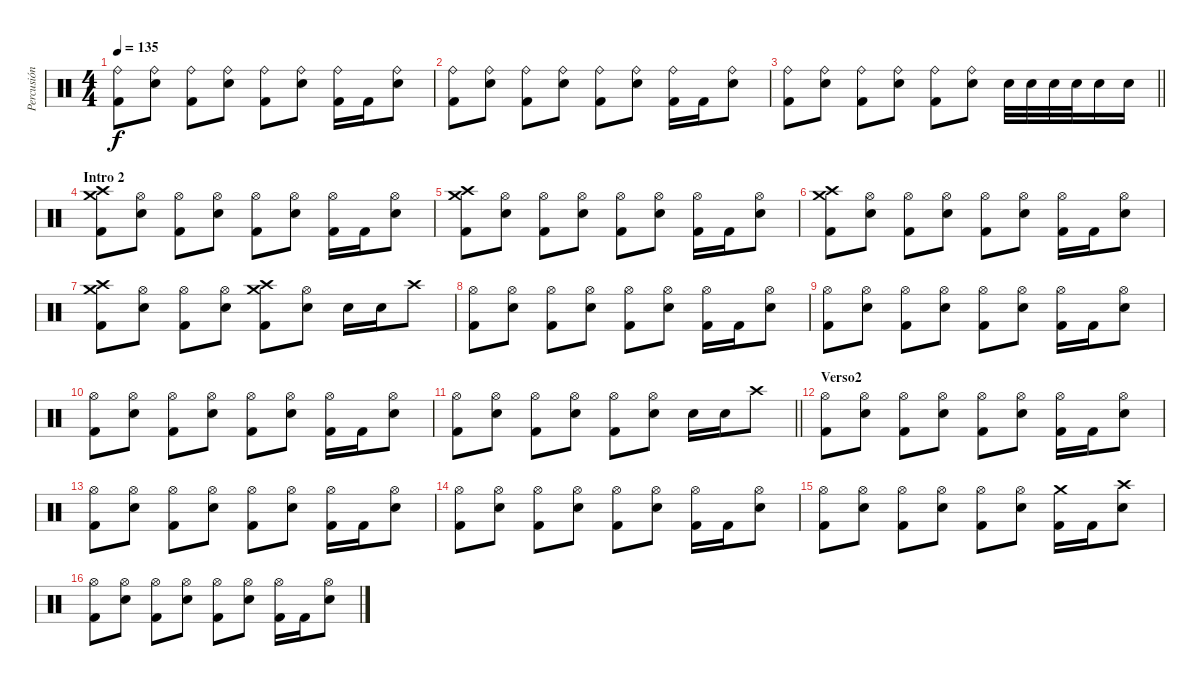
\track ("Percusión" "Percusión") {instrument percussion}
\staff {score}
\articulation defaults
\ts (4 4)
\tempo 135
\clef neutral
\ks c
("Ride (bell)" "Kick (hit) 2").8{dy f} ("Ride (bell)" "Electric Snare (hit)").8 ("Ride (bell)" "Kick (hit) 2").8 ("Ride (bell)" "Electric Snare (hit)").8 ("Ride (bell)" "Kick (hit) 2").8 ("Ride (bell)" "Electric Snare (hit)").8 ("Ride (bell)" "Kick (hit) 2").16 "Kick (hit) 2".16 ("Ride (bell)" "Electric Snare (hit)").8 |
("Ride (bell)" "Kick (hit) 2").8 ("Ride (bell)" "Electric Snare (hit)").8 ("Ride (bell)" "Kick (hit) 2").8 ("Ride (bell)" "Electric Snare (hit)").8 ("Ride (bell)" "Kick (hit) 2").8 ("Ride (bell)" "Electric Snare (hit)").8 ("Ride (bell)" "Kick (hit) 2").16 "Kick (hit) 2".16 ("Ride (bell)" "Electric Snare (hit)").8 |
\barLineRight lightlight
("Ride (bell)" "Kick (hit) 2").8 ("Ride (bell)" "Electric Snare (hit)").8 ("Ride (bell)" "Kick (hit) 2").8 ("Ride (bell)" "Electric Snare (hit)").8 ("Ride (bell)" "Kick (hit) 2").8 ("Ride (bell)" "Electric Snare (hit)").8 "Electric Snare (hit)".32 "Electric Snare (hit)".32 "Electric Snare (hit)".32 "Electric Snare (hit)".32 "Electric Snare (hit)".16 "Electric Snare (hit)".16 |
\section ("" "Intro 2")
("Crash high (hit)" "Crash medium (hit)" "Kick (hit) 2").8 ("Hi-Hat (open)" "Electric Snare (hit)").8 ("Hi-Hat (open)" "Kick (hit) 2").8 ("Hi-Hat (open)" "Electric Snare (hit)").8 ("Hi-Hat (open)" "Kick (hit) 2").8 ("Hi-Hat (open)" "Electric Snare (hit)").8 ("Hi-Hat (open)" "Kick (hit) 2").16 "Kick (hit) 2".16 ("Hi-Hat (open)" "Electric Snare (hit)").8 |
("Crash high (hit)" "Crash medium (hit)" "Kick (hit) 2").8 ("Hi-Hat (open)" "Electric Snare (hit)").8 ("Hi-Hat (open)" "Kick (hit) 2").8 ("Hi-Hat (open)" "Electric Snare (hit)").8 ("Hi-Hat (open)" "Kick (hit) 2").8 ("Hi-Hat (open)" "Electric Snare (hit)").8 ("Hi-Hat (open)" "Kick (hit) 2").16 "Kick (hit) 2".16 ("Hi-Hat (open)" "Electric Snare (hit)").8 |
("Crash high (hit)" "Crash medium (hit)" "Kick (hit) 2").8 ("Hi-Hat (open)" "Snare (hit) 2").8 ("Hi-Hat (open)" "Kick (hit) 2").8 ("Hi-Hat (open)" "Electric Snare (hit)").8 ("Hi-Hat (open)" "Kick (hit) 2").8 ("Hi-Hat (open)" "Electric Snare (hit)").8 ("Hi-Hat (open)" "Kick (hit) 2").16 "Kick (hit) 2".16 ("Hi-Hat (open)" "Electric Snare (hit)").8 |
("Crash high (hit)" "Crash medium (hit)" "Kick (hit) 2").8 ("Hi-Hat (open)" "Electric Snare (hit)").8 ("Hi-Hat (open)" "Kick (hit) 2").8 ("Hi-Hat (open)" "Electric Snare (hit)").8 ("Crash high (hit)" "Crash medium (hit)" "Kick (hit) 2").8 ("Hi-Hat (open)" "Electric Snare (hit)").8 "Electric Snare (hit)".16 "Electric Snare (hit)".16 "Crash high (hit)".8 |
("Hi-Hat (open)" "Kick (hit) 2").8 ("Hi-Hat (open)" "Electric Snare (hit)").8 ("Hi-Hat (open)" "Kick (hit) 2").8 ("Hi-Hat (open)" "Electric Snare (hit)").8 ("Hi-Hat (open)" "Kick (hit) 2").8 ("Hi-Hat (open)" "Electric Snare (hit)").8 ("Hi-Hat (open)" "Kick (hit) 2").16 "Kick (hit) 2".16 ("Hi-Hat (open)" "Electric Snare (hit)").8 |
("Hi-Hat (open)" "Kick (hit) 2").8 ("Hi-Hat (open)" "Electric Snare (hit)").8 ("Hi-Hat (open)" "Kick (hit) 2").8 ("Hi-Hat (open)" "Electric Snare (hit)").8 ("Hi-Hat (open)" "Kick (hit) 2").8 ("Hi-Hat (open)" "Electric Snare (hit)").8 ("Hi-Hat (open)" "Kick (hit) 2").16 "Kick (hit) 2".16 ("Hi-Hat (open)" "Electric Snare (hit)").8 |
("Hi-Hat (open)" "Kick (hit) 2").8 ("Hi-Hat (open)" "Snare (hit) 2").8 ("Hi-Hat (open)" "Kick (hit) 2").8 ("Hi-Hat (open)" "Electric Snare (hit)").8 ("Hi-Hat (open)" "Kick (hit) 2").8 ("Hi-Hat (open)" "Electric Snare (hit)").8 ("Hi-Hat (open)" "Kick (hit) 2").16 "Kick (hit) 2".16 ("Hi-Hat (open)" "Electric Snare (hit)").8 |
\barLineRight lightlight
("Hi-Hat (open)" "Kick (hit) 2").8 ("Hi-Hat (open)" "Electric Snare (hit)").8 ("Hi-Hat (open)" "Kick (hit) 2").8 ("Hi-Hat (open)" "Electric Snare (hit)").8 ("Hi-Hat (open)" "Kick (hit) 2").8 ("Hi-Hat (open)" "Electric Snare (hit)").8 "Electric Snare (hit)".16 "Electric Snare (hit)".16 "Crash high (hit)".8 |
\section ("" "Verso2")
("Hi-Hat (open)" "Kick (hit) 2").8 ("Hi-Hat (open)" "Electric Snare (hit)").8 ("Hi-Hat (open)" "Kick (hit) 2").8 ("Hi-Hat (open)" "Electric Snare (hit)").8 ("Hi-Hat (open)" "Kick (hit) 2").8 ("Hi-Hat (open)" "Electric Snare (hit)").8 ("Hi-Hat (open)" "Kick (hit) 2").16 "Kick (hit) 2".16 ("Hi-Hat (open)" "Electric Snare (hit)").8 |
("Hi-Hat (open)" "Kick (hit) 2").8 ("Hi-Hat (open)" "Electric Snare (hit)").8 ("Hi-Hat (open)" "Kick (hit) 2").8 ("Hi-Hat (open)" "Electric Snare (hit)").8 ("Hi-Hat (open)" "Kick (hit) 2").8 ("Hi-Hat (open)" "Electric Snare (hit)").8 ("Hi-Hat (open)" "Kick (hit) 2").16 "Kick (hit) 2".16 ("Hi-Hat (open)" "Electric Snare (hit)").8 |
("Hi-Hat (open)" "Kick (hit) 2").8 ("Hi-Hat (open)" "Electric Snare (hit)").8 ("Hi-Hat (open)" "Kick (hit) 2").8 ("Hi-Hat (open)" "Electric Snare (hit)").8 ("Hi-Hat (open)" "Kick (hit) 2").8 ("Hi-Hat (open)" "Electric Snare (hit)").8 ("Hi-Hat (open)" "Kick (hit) 2").16 "Kick (hit) 2".16 ("Hi-Hat (open)" "Electric Snare (hit)").8 |
("Hi-Hat (open)" "Kick (hit) 2").8 ("Hi-Hat (open)" "Electric Snare (hit)").8 ("Hi-Hat (open)" "Kick (hit) 2").8 ("Hi-Hat (open)" "Electric Snare (hit)").8 ("Hi-Hat (open)" "Kick (hit) 2").8 ("Hi-Hat (open)" "Electric Snare (hit)").8 ("Crash medium (hit)" "Kick (hit) 2").16 "Kick (hit) 2".16 ("Crash high (hit)" "Electric Snare (hit)").8 |
("Hi-Hat (open)" "Kick (hit) 2").8 ("Hi-Hat (open)" "Electric Snare (hit)").8 ("Hi-Hat (open)" "Kick (hit) 2").8 ("Hi-Hat (open)" "Electric Snare (hit)").8 ("Hi-Hat (open)" "Kick (hit) 2").8 ("Hi-Hat (open)" "Electric Snare (hit)").8 ("Hi-Hat (open)" "Kick (hit) 2").16 "Kick (hit) 2".16 ("Hi-Hat (open)" "Electric Snare (hit)").8
